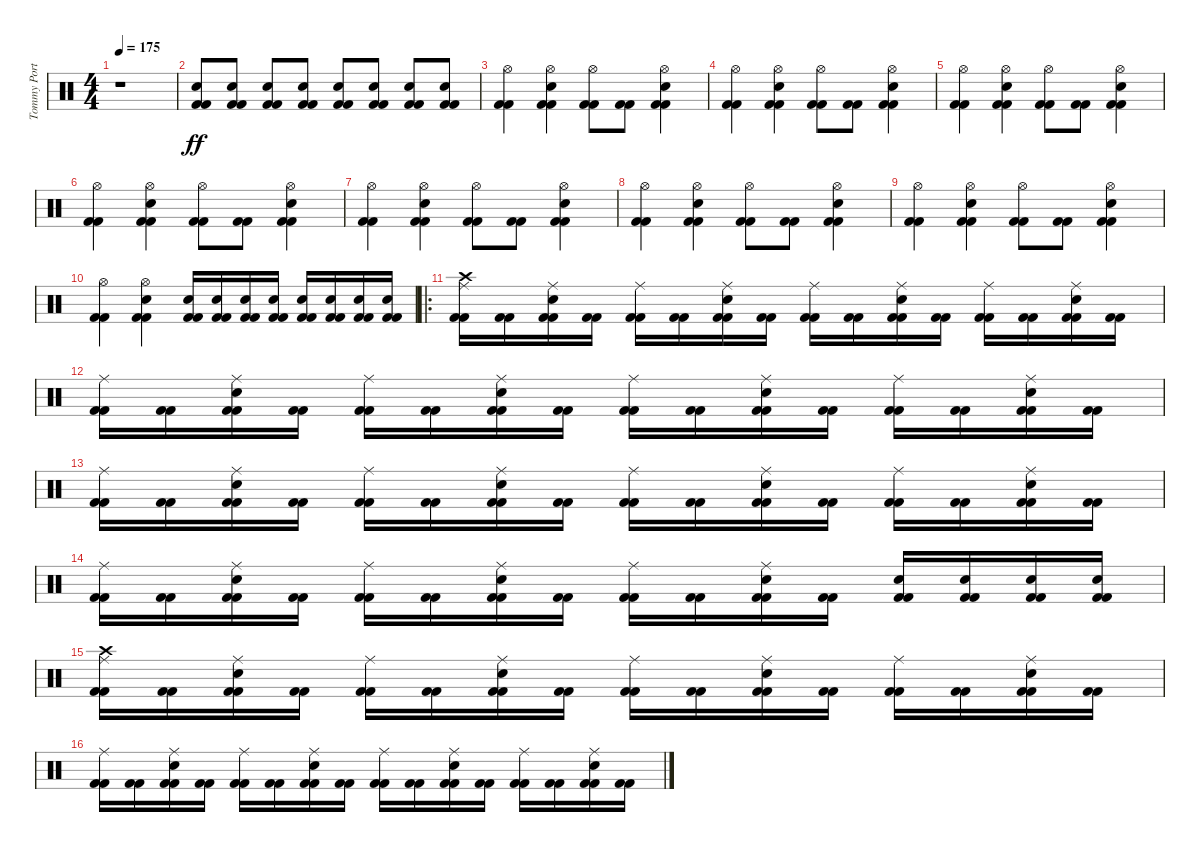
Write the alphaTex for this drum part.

\track ("Tommy Portimo" "Tommy Port") {instrument percussion}
\staff {score}
\articulation defaults
\ts (4 4)
\tempo 175
\clef neutral
\ks c
r.1{dy ff} |
("Kick (hit) 2" "Kick (hit) 2" "Electric Snare (hit)").8 ("Kick (hit) 2" "Kick (hit) 2" "Electric Snare (hit)").8 ("Kick (hit) 2" "Kick (hit) 2" "Electric Snare (hit)").8 ("Kick (hit) 2" "Kick (hit) 2" "Electric Snare (hit)").8 ("Kick (hit) 2" "Kick (hit) 2" "Electric Snare (hit)").8 ("Kick (hit) 2" "Kick (hit) 2" "Electric Snare (hit)").8 ("Kick (hit) 2" "Kick (hit) 2" "Electric Snare (hit)").8 ("Kick (hit) 2" "Kick (hit) 2" "Electric Snare (hit)").8 |
("Kick (hit) 2" "Kick (hit) 2" "Hi-Hat (open)").4 ("Kick (hit) 2" "Kick (hit) 2" "Electric Snare (hit)" "Hi-Hat (open)").4 ("Kick (hit) 2" "Kick (hit) 2" "Hi-Hat (open)").8 ("Kick (hit) 2" "Kick (hit) 2").8 ("Kick (hit) 2" "Kick (hit) 2" "Electric Snare (hit)" "Hi-Hat (open)").4 |
("Kick (hit) 2" "Kick (hit) 2" "Hi-Hat (open)").4 ("Kick (hit) 2" "Kick (hit) 2" "Electric Snare (hit)" "Hi-Hat (open)").4 ("Kick (hit) 2" "Kick (hit) 2" "Hi-Hat (open)").8 ("Kick (hit) 2" "Kick (hit) 2").8 ("Kick (hit) 2" "Kick (hit) 2" "Electric Snare (hit)" "Hi-Hat (open)").4 |
("Kick (hit) 2" "Kick (hit) 2" "Hi-Hat (open)").4 ("Kick (hit) 2" "Kick (hit) 2" "Electric Snare (hit)" "Hi-Hat (open)").4 ("Kick (hit) 2" "Kick (hit) 2" "Hi-Hat (open)").8 ("Kick (hit) 2" "Kick (hit) 2").8 ("Kick (hit) 2" "Kick (hit) 2" "Electric Snare (hit)" "Hi-Hat (open)").4 |
("Kick (hit) 2" "Kick (hit) 2" "Hi-Hat (open)").4 ("Kick (hit) 2" "Kick (hit) 2" "Electric Snare (hit)" "Hi-Hat (open)").4 ("Kick (hit) 2" "Kick (hit) 2" "Hi-Hat (open)").8 ("Kick (hit) 2" "Kick (hit) 2").8 ("Kick (hit) 2" "Kick (hit) 2" "Electric Snare (hit)" "Hi-Hat (open)").4 |
("Kick (hit) 2" "Kick (hit) 2" "Hi-Hat (open)").4 ("Kick (hit) 2" "Kick (hit) 2" "Electric Snare (hit)" "Hi-Hat (open)").4 ("Kick (hit) 2" "Kick (hit) 2" "Hi-Hat (open)").8 ("Kick (hit) 2" "Kick (hit) 2").8 ("Kick (hit) 2" "Kick (hit) 2" "Electric Snare (hit)" "Hi-Hat (open)").4 |
("Kick (hit) 2" "Kick (hit) 2" "Hi-Hat (open)").4 ("Kick (hit) 2" "Kick (hit) 2" "Electric Snare (hit)" "Hi-Hat (open)").4 ("Kick (hit) 2" "Kick (hit) 2" "Hi-Hat (open)").8 ("Kick (hit) 2" "Kick (hit) 2").8 ("Kick (hit) 2" "Kick (hit) 2" "Electric Snare (hit)" "Hi-Hat (open)").4 |
("Kick (hit) 2" "Kick (hit) 2" "Hi-Hat (open)").4 ("Kick (hit) 2" "Kick (hit) 2" "Electric Snare (hit)" "Hi-Hat (open)").4 ("Kick (hit) 2" "Kick (hit) 2" "Hi-Hat (open)").8 ("Kick (hit) 2" "Kick (hit) 2").8 ("Kick (hit) 2" "Kick (hit) 2" "Electric Snare (hit)" "Hi-Hat (open)").4 |
("Kick (hit) 2" "Kick (hit) 2" "Hi-Hat (open)").4 ("Kick (hit) 2" "Kick (hit) 2" "Electric Snare (hit)" "Hi-Hat (open)").4 ("Kick (hit) 2" "Kick (hit) 2" "Electric Snare (hit)").16 ("Kick (hit) 2" "Kick (hit) 2" "Electric Snare (hit)").16 ("Kick (hit) 2" "Kick (hit) 2" "Electric Snare (hit)").16 ("Kick (hit) 2" "Kick (hit) 2" "Electric Snare (hit)").16 ("Kick (hit) 2" "Kick (hit) 2" "Electric Snare (hit)").16 ("Kick (hit) 2" "Kick (hit) 2" "Electric Snare (hit)").16 ("Kick (hit) 2" "Kick (hit) 2" "Electric Snare (hit)").16 ("Kick (hit) 2" "Kick (hit) 2" "Electric Snare (hit)").16 |
\ro
("Kick (hit) 2" "Kick (hit) 2" "Ride (middle)" "Crash high (hit)").16 ("Kick (hit) 2" "Kick (hit) 2").16 ("Kick (hit) 2" "Kick (hit) 2" "Ride (middle)" "Electric Snare (hit)").16 ("Kick (hit) 2" "Kick (hit) 2").16 ("Kick (hit) 2" "Kick (hit) 2" "Ride (middle)").16 ("Kick (hit) 2" "Kick (hit) 2").16 ("Kick (hit) 2" "Kick (hit) 2" "Ride (middle)" "Electric Snare (hit)").16 ("Kick (hit) 2" "Kick (hit) 2").16 ("Kick (hit) 2" "Kick (hit) 2" "Ride (middle)").16 ("Kick (hit) 2" "Kick (hit) 2").16 ("Kick (hit) 2" "Kick (hit) 2" "Ride (middle)" "Electric Snare (hit)").16 ("Kick (hit) 2" "Kick (hit) 2").16 ("Kick (hit) 2" "Kick (hit) 2" "Ride (middle)").16 ("Kick (hit) 2" "Kick (hit) 2").16 ("Kick (hit) 2" "Kick (hit) 2" "Ride (middle)" "Electric Snare (hit)").16 ("Kick (hit) 2" "Kick (hit) 2").16 |
("Kick (hit) 2" "Kick (hit) 2" "Ride (middle)").16 ("Kick (hit) 2" "Kick (hit) 2").16 ("Kick (hit) 2" "Kick (hit) 2" "Ride (middle)" "Electric Snare (hit)").16 ("Kick (hit) 2" "Kick (hit) 2").16 ("Kick (hit) 2" "Kick (hit) 2" "Ride (middle)").16 ("Kick (hit) 2" "Kick (hit) 2").16 ("Kick (hit) 2" "Kick (hit) 2" "Ride (middle)" "Electric Snare (hit)").16 ("Kick (hit) 2" "Kick (hit) 2").16 ("Kick (hit) 2" "Kick (hit) 2" "Ride (middle)").16 ("Kick (hit) 2" "Kick (hit) 2").16 ("Kick (hit) 2" "Kick (hit) 2" "Ride (middle)" "Electric Snare (hit)").16 ("Kick (hit) 2" "Kick (hit) 2").16 ("Kick (hit) 2" "Kick (hit) 2" "Ride (middle)").16 ("Kick (hit) 2" "Kick (hit) 2").16 ("Kick (hit) 2" "Kick (hit) 2" "Ride (middle)" "Electric Snare (hit)").16 ("Kick (hit) 2" "Kick (hit) 2").16 |
("Kick (hit) 2" "Kick (hit) 2" "Ride (middle)").16 ("Kick (hit) 2" "Kick (hit) 2").16 ("Kick (hit) 2" "Kick (hit) 2" "Ride (middle)" "Electric Snare (hit)").16 ("Kick (hit) 2" "Kick (hit) 2").16 ("Kick (hit) 2" "Kick (hit) 2" "Ride (middle)").16 ("Kick (hit) 2" "Kick (hit) 2").16 ("Kick (hit) 2" "Kick (hit) 2" "Ride (middle)" "Electric Snare (hit)").16 ("Kick (hit) 2" "Kick (hit) 2").16 ("Kick (hit) 2" "Kick (hit) 2" "Ride (middle)").16 ("Kick (hit) 2" "Kick (hit) 2").16 ("Kick (hit) 2" "Kick (hit) 2" "Ride (middle)" "Electric Snare (hit)").16 ("Kick (hit) 2" "Kick (hit) 2").16 ("Kick (hit) 2" "Kick (hit) 2" "Ride (middle)").16 ("Kick (hit) 2" "Kick (hit) 2").16 ("Kick (hit) 2" "Kick (hit) 2" "Ride (middle)" "Electric Snare (hit)").16 ("Kick (hit) 2" "Kick (hit) 2").16 |
("Kick (hit) 2" "Kick (hit) 2" "Ride (middle)").16 ("Kick (hit) 2" "Kick (hit) 2").16 ("Kick (hit) 2" "Kick (hit) 2" "Ride (middle)" "Electric Snare (hit)").16 ("Kick (hit) 2" "Kick (hit) 2").16 ("Kick (hit) 2" "Kick (hit) 2" "Ride (middle)").16 ("Kick (hit) 2" "Kick (hit) 2").16 ("Kick (hit) 2" "Kick (hit) 2" "Ride (middle)" "Electric Snare (hit)").16 ("Kick (hit) 2" "Kick (hit) 2").16 ("Kick (hit) 2" "Kick (hit) 2" "Ride (middle)").16 ("Kick (hit) 2" "Kick (hit) 2").16 ("Kick (hit) 2" "Kick (hit) 2" "Ride (middle)" "Electric Snare (hit)").16 ("Kick (hit) 2" "Kick (hit) 2").16 ("Kick (hit) 2" "Kick (hit) 2" "Electric Snare (hit)").16 ("Kick (hit) 2" "Kick (hit) 2" "Electric Snare (hit)").16 ("Kick (hit) 2" "Kick (hit) 2" "Electric Snare (hit)").16 ("Kick (hit) 2" "Kick (hit) 2" "Electric Snare (hit)").16 |
("Kick (hit) 2" "Kick (hit) 2" "Ride (middle)" "Crash high (hit)").16 ("Kick (hit) 2" "Kick (hit) 2").16 ("Kick (hit) 2" "Kick (hit) 2" "Ride (middle)" "Electric Snare (hit)").16 ("Kick (hit) 2" "Kick (hit) 2").16 ("Kick (hit) 2" "Kick (hit) 2" "Ride (middle)").16 ("Kick (hit) 2" "Kick (hit) 2").16 ("Kick (hit) 2" "Kick (hit) 2" "Ride (middle)" "Electric Snare (hit)").16 ("Kick (hit) 2" "Kick (hit) 2").16 ("Kick (hit) 2" "Kick (hit) 2" "Ride (middle)").16 ("Kick (hit) 2" "Kick (hit) 2").16 ("Kick (hit) 2" "Kick (hit) 2" "Ride (middle)" "Electric Snare (hit)").16 ("Kick (hit) 2" "Kick (hit) 2").16 ("Kick (hit) 2" "Kick (hit) 2" "Ride (middle)").16 ("Kick (hit) 2" "Kick (hit) 2").16 ("Kick (hit) 2" "Kick (hit) 2" "Ride (middle)" "Electric Snare (hit)").16 ("Kick (hit) 2" "Kick (hit) 2").16 |
("Kick (hit) 2" "Kick (hit) 2" "Ride (middle)").16 ("Kick (hit) 2" "Kick (hit) 2").16 ("Kick (hit) 2" "Kick (hit) 2" "Ride (middle)" "Electric Snare (hit)").16 ("Kick (hit) 2" "Kick (hit) 2").16 ("Kick (hit) 2" "Kick (hit) 2" "Ride (middle)").16 ("Kick (hit) 2" "Kick (hit) 2").16 ("Kick (hit) 2" "Kick (hit) 2" "Ride (middle)" "Electric Snare (hit)").16 ("Kick (hit) 2" "Kick (hit) 2").16 ("Kick (hit) 2" "Kick (hit) 2" "Ride (middle)").16 ("Kick (hit) 2" "Kick (hit) 2").16 ("Kick (hit) 2" "Kick (hit) 2" "Ride (middle)" "Electric Snare (hit)").16 ("Kick (hit) 2" "Kick (hit) 2").16 ("Kick (hit) 2" "Kick (hit) 2" "Ride (middle)").16 ("Kick (hit) 2" "Kick (hit) 2").16 ("Kick (hit) 2" "Kick (hit) 2" "Ride (middle)" "Electric Snare (hit)").16 ("Kick (hit) 2" "Kick (hit) 2").16
